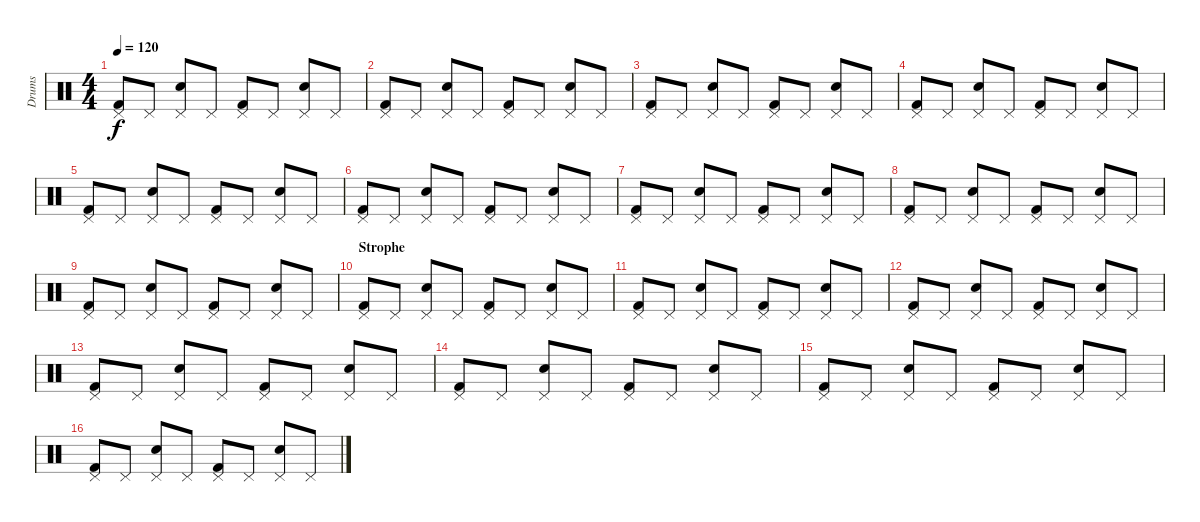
\track ("Drums" "Drums") {instrument percussion}
\staff {score}
\articulation defaults
\ts (4 4)
\tempo 120
\clef neutral
\ks c
("Pedal Hi-Hat (hit)" "Kick (hit) 2").8{dy f} "Pedal Hi-Hat (hit)".8 ("Pedal Hi-Hat (hit)" "Snare (hit) 2").8 "Pedal Hi-Hat (hit)".8 ("Pedal Hi-Hat (hit)" "Kick (hit) 2").8 "Pedal Hi-Hat (hit)".8 ("Pedal Hi-Hat (hit)" "Snare (hit) 2").8 "Pedal Hi-Hat (hit)".8 |
("Pedal Hi-Hat (hit)" "Kick (hit) 2").8 "Pedal Hi-Hat (hit)".8 ("Pedal Hi-Hat (hit)" "Snare (hit) 2").8 "Pedal Hi-Hat (hit)".8 ("Pedal Hi-Hat (hit)" "Kick (hit) 2").8 "Pedal Hi-Hat (hit)".8 ("Pedal Hi-Hat (hit)" "Snare (hit) 2").8 "Pedal Hi-Hat (hit)".8 |
("Pedal Hi-Hat (hit)" "Kick (hit) 2").8 "Pedal Hi-Hat (hit)".8 ("Pedal Hi-Hat (hit)" "Snare (hit) 2").8 "Pedal Hi-Hat (hit)".8 ("Pedal Hi-Hat (hit)" "Kick (hit) 2").8 "Pedal Hi-Hat (hit)".8 ("Pedal Hi-Hat (hit)" "Snare (hit) 2").8 "Pedal Hi-Hat (hit)".8 |
("Pedal Hi-Hat (hit)" "Kick (hit) 2").8 "Pedal Hi-Hat (hit)".8 ("Pedal Hi-Hat (hit)" "Snare (hit) 2").8 "Pedal Hi-Hat (hit)".8 ("Pedal Hi-Hat (hit)" "Kick (hit) 2").8 "Pedal Hi-Hat (hit)".8 ("Pedal Hi-Hat (hit)" "Snare (hit) 2").8 "Pedal Hi-Hat (hit)".8 |
("Pedal Hi-Hat (hit)" "Kick (hit) 2").8 "Pedal Hi-Hat (hit)".8 ("Pedal Hi-Hat (hit)" "Snare (hit) 2").8 "Pedal Hi-Hat (hit)".8 ("Pedal Hi-Hat (hit)" "Kick (hit) 2").8 "Pedal Hi-Hat (hit)".8 ("Pedal Hi-Hat (hit)" "Snare (hit) 2").8 "Pedal Hi-Hat (hit)".8 |
("Pedal Hi-Hat (hit)" "Kick (hit) 2").8 "Pedal Hi-Hat (hit)".8 ("Pedal Hi-Hat (hit)" "Snare (hit) 2").8 "Pedal Hi-Hat (hit)".8 ("Pedal Hi-Hat (hit)" "Kick (hit) 2").8 "Pedal Hi-Hat (hit)".8 ("Pedal Hi-Hat (hit)" "Snare (hit) 2").8 "Pedal Hi-Hat (hit)".8 |
("Pedal Hi-Hat (hit)" "Kick (hit) 2").8 "Pedal Hi-Hat (hit)".8 ("Pedal Hi-Hat (hit)" "Snare (hit) 2").8 "Pedal Hi-Hat (hit)".8 ("Pedal Hi-Hat (hit)" "Kick (hit) 2").8 "Pedal Hi-Hat (hit)".8 ("Pedal Hi-Hat (hit)" "Snare (hit) 2").8 "Pedal Hi-Hat (hit)".8 |
("Pedal Hi-Hat (hit)" "Kick (hit) 2").8 "Pedal Hi-Hat (hit)".8 ("Pedal Hi-Hat (hit)" "Snare (hit) 2").8 "Pedal Hi-Hat (hit)".8 ("Pedal Hi-Hat (hit)" "Kick (hit) 2").8 "Pedal Hi-Hat (hit)".8 ("Pedal Hi-Hat (hit)" "Snare (hit) 2").8 "Pedal Hi-Hat (hit)".8 |
("Pedal Hi-Hat (hit)" "Kick (hit) 2").8 "Pedal Hi-Hat (hit)".8 ("Pedal Hi-Hat (hit)" "Snare (hit) 2").8 "Pedal Hi-Hat (hit)".8 ("Pedal Hi-Hat (hit)" "Kick (hit) 2").8 "Pedal Hi-Hat (hit)".8 ("Pedal Hi-Hat (hit)" "Snare (hit) 2").8 "Pedal Hi-Hat (hit)".8 |
\section ("" "Strophe")
("Pedal Hi-Hat (hit)" "Kick (hit) 2").8 "Pedal Hi-Hat (hit)".8 ("Pedal Hi-Hat (hit)" "Snare (hit) 2").8 "Pedal Hi-Hat (hit)".8 ("Pedal Hi-Hat (hit)" "Kick (hit) 2").8 "Pedal Hi-Hat (hit)".8 ("Pedal Hi-Hat (hit)" "Snare (hit) 2").8 "Pedal Hi-Hat (hit)".8 |
("Pedal Hi-Hat (hit)" "Kick (hit) 2").8 "Pedal Hi-Hat (hit)".8 ("Pedal Hi-Hat (hit)" "Snare (hit) 2").8 "Pedal Hi-Hat (hit)".8 ("Pedal Hi-Hat (hit)" "Kick (hit) 2").8 "Pedal Hi-Hat (hit)".8 ("Pedal Hi-Hat (hit)" "Snare (hit) 2").8 "Pedal Hi-Hat (hit)".8 |
("Pedal Hi-Hat (hit)" "Kick (hit) 2").8 "Pedal Hi-Hat (hit)".8 ("Pedal Hi-Hat (hit)" "Snare (hit) 2").8 "Pedal Hi-Hat (hit)".8 ("Pedal Hi-Hat (hit)" "Kick (hit) 2").8 "Pedal Hi-Hat (hit)".8 ("Pedal Hi-Hat (hit)" "Snare (hit) 2").8 "Pedal Hi-Hat (hit)".8 |
("Pedal Hi-Hat (hit)" "Kick (hit) 2").8 "Pedal Hi-Hat (hit)".8 ("Pedal Hi-Hat (hit)" "Snare (hit) 2").8 "Pedal Hi-Hat (hit)".8 ("Pedal Hi-Hat (hit)" "Kick (hit) 2").8 "Pedal Hi-Hat (hit)".8 ("Pedal Hi-Hat (hit)" "Snare (hit) 2").8 "Pedal Hi-Hat (hit)".8 |
("Pedal Hi-Hat (hit)" "Kick (hit) 2").8 "Pedal Hi-Hat (hit)".8 ("Pedal Hi-Hat (hit)" "Snare (hit) 2").8 "Pedal Hi-Hat (hit)".8 ("Pedal Hi-Hat (hit)" "Kick (hit) 2").8 "Pedal Hi-Hat (hit)".8 ("Pedal Hi-Hat (hit)" "Snare (hit) 2").8 "Pedal Hi-Hat (hit)".8 |
("Pedal Hi-Hat (hit)" "Kick (hit) 2").8 "Pedal Hi-Hat (hit)".8 ("Pedal Hi-Hat (hit)" "Snare (hit) 2").8 "Pedal Hi-Hat (hit)".8 ("Pedal Hi-Hat (hit)" "Kick (hit) 2").8 "Pedal Hi-Hat (hit)".8 ("Pedal Hi-Hat (hit)" "Snare (hit) 2").8 "Pedal Hi-Hat (hit)".8 |
("Pedal Hi-Hat (hit)" "Kick (hit) 2").8 "Pedal Hi-Hat (hit)".8 ("Pedal Hi-Hat (hit)" "Snare (hit) 2").8 "Pedal Hi-Hat (hit)".8 ("Pedal Hi-Hat (hit)" "Kick (hit) 2").8 "Pedal Hi-Hat (hit)".8 ("Pedal Hi-Hat (hit)" "Snare (hit) 2").8 "Pedal Hi-Hat (hit)".8
